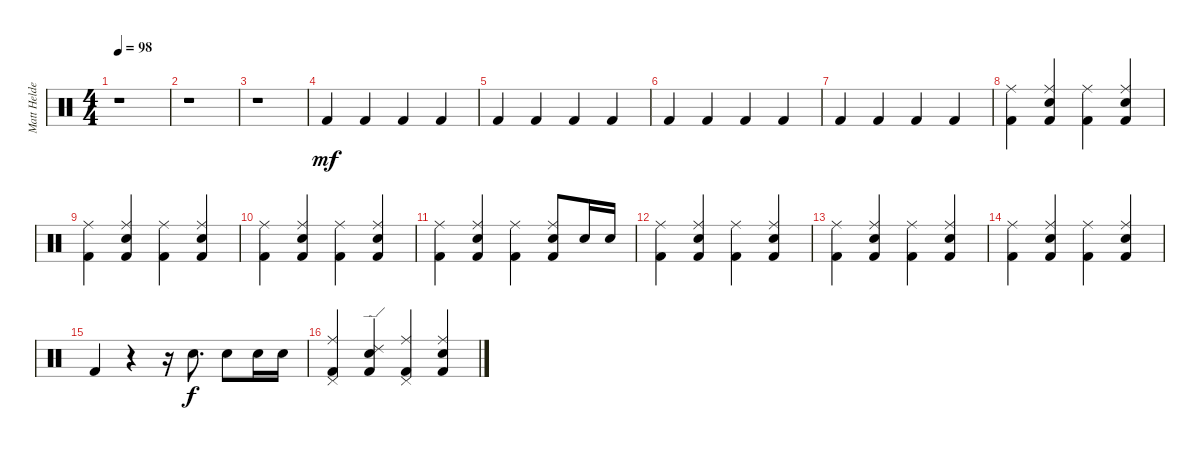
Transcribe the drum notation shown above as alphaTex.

\track ("Matt Helders" "Matt Helde") {instrument percussion}
\staff {score}
\articulation defaults
\ts (4 4)
\tempo 98
\clef neutral
\ks c
r.1{dy f} |
r.1 |
r.1 |
"Kick (hit) 2".4{dy mf} "Kick (hit) 2".4 "Kick (hit) 2".4 "Kick (hit) 2".4 |
"Kick (hit) 2".4 "Kick (hit) 2".4 "Kick (hit) 2".4 "Kick (hit) 2".4 |
"Kick (hit) 2".4 "Kick (hit) 2".4 "Kick (hit) 2".4 "Kick (hit) 2".4 |
"Kick (hit) 2".4 "Kick (hit) 2".4 "Kick (hit) 2".4 "Kick (hit) 2".4 |
("Kick (hit) 2" "Ride (middle)").4 ("Kick (hit) 2" "Snare (hit) 2" "Ride (middle)").4 ("Kick (hit) 2" "Ride (middle)").4 ("Kick (hit) 2" "Snare (hit) 2" "Ride (middle)").4 |
("Kick (hit) 2" "Ride (middle)").4 ("Kick (hit) 2" "Snare (hit) 2" "Ride (middle)").4 ("Kick (hit) 2" "Ride (middle)").4 ("Kick (hit) 2" "Snare (hit) 2" "Ride (middle)").4 |
("Kick (hit) 2" "Ride (middle)").4 ("Kick (hit) 2" "Snare (hit) 2" "Ride (middle)").4 ("Kick (hit) 2" "Ride (middle)").4 ("Kick (hit) 2" "Snare (hit) 2" "Ride (middle)").4 |
("Kick (hit) 2" "Ride (middle)").4 ("Kick (hit) 2" "Snare (hit) 2" "Ride (middle)").4 ("Kick (hit) 2" "Ride (middle)").4 ("Kick (hit) 2" "Snare (hit) 2" "Ride (middle)").8 "Snare (hit) 2".16 "Snare (hit) 2".16 |
("Kick (hit) 2" "Ride (middle)").4 ("Kick (hit) 2" "Snare (hit) 2" "Ride (middle)").4 ("Kick (hit) 2" "Ride (middle)").4 ("Kick (hit) 2" "Snare (hit) 2" "Ride (middle)").4 |
("Kick (hit) 2" "Ride (middle)").4 ("Kick (hit) 2" "Snare (hit) 2" "Ride (middle)").4 ("Kick (hit) 2" "Ride (middle)").4 ("Kick (hit) 2" "Snare (hit) 2" "Ride (middle)").4 |
("Kick (hit) 2" "Ride (middle)").4 ("Kick (hit) 2" "Snare (hit) 2" "Ride (middle)").4 ("Kick (hit) 2" "Ride (middle)").4 ("Kick (hit) 2" "Snare (hit) 2" "Ride (middle)").4 |
"Kick (hit) 2".4 r.4 r.16 "Snare (hit) 2".8{d dy f} "Snare (hit) 2".8 "Snare (hit) 2".16 "Snare (hit) 2".16 |
("Kick (hit) 2" "Pedal Hi-Hat (hit)" "Ride (middle)").4 ("Snare (hit) 2" "Kick (hit) 2" "Ride (edge) 2").4 ("Kick (hit) 2" "Pedal Hi-Hat (hit)" "Ride (middle)").4 ("Snare (hit) 2" "Kick (hit) 2" "Ride (middle)").4
